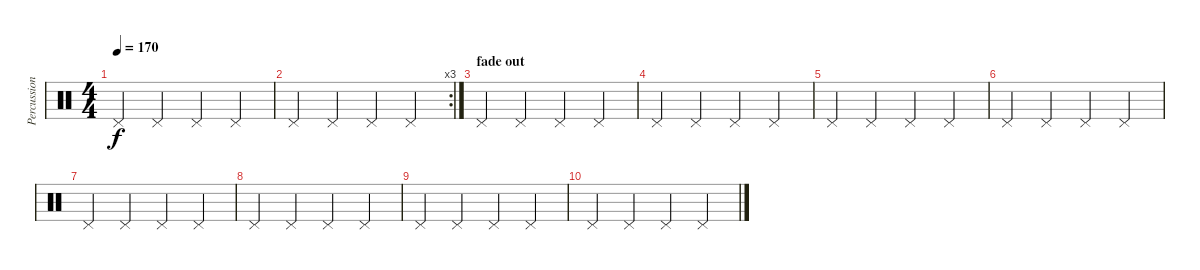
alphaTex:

\track ("Percussion" "Percussion") {instrument percussion}
\staff {score}
\articulation defaults
\ts (4 4)
\tempo 170
\clef neutral
\ks c "Pedal Hi-Hat (hit)".4{dy f} "Pedal Hi-Hat (hit)".4 "Pedal Hi-Hat (hit)".4 "Pedal Hi-Hat (hit)".4
|
\rc 3 "Pedal Hi-Hat (hit)".4 "Pedal Hi-Hat (hit)".4 "Pedal Hi-Hat (hit)".4 "Pedal Hi-Hat (hit)".4
|
\section ("" "fade out")
"Pedal Hi-Hat (hit)".4 "Pedal Hi-Hat (hit)".4 "Pedal Hi-Hat (hit)".4 "Pedal Hi-Hat (hit)".4 |
"Pedal Hi-Hat (hit)".4 "Pedal Hi-Hat (hit)".4 "Pedal Hi-Hat (hit)".4 "Pedal Hi-Hat (hit)".4 |
"Pedal Hi-Hat (hit)".4 "Pedal Hi-Hat (hit)".4 "Pedal Hi-Hat (hit)".4 "Pedal Hi-Hat (hit)".4 |
"Pedal Hi-Hat (hit)".4 "Pedal Hi-Hat (hit)".4 "Pedal Hi-Hat (hit)".4 "Pedal Hi-Hat (hit)".4 |
"Pedal Hi-Hat (hit)".4 "Pedal Hi-Hat (hit)".4 "Pedal Hi-Hat (hit)".4 "Pedal Hi-Hat (hit)".4 |
"Pedal Hi-Hat (hit)".4 "Pedal Hi-Hat (hit)".4 "Pedal Hi-Hat (hit)".4 "Pedal Hi-Hat (hit)".4 |
"Pedal Hi-Hat (hit)".4 "Pedal Hi-Hat (hit)".4 "Pedal Hi-Hat (hit)".4 "Pedal Hi-Hat (hit)".4 |
"Pedal Hi-Hat (hit)".4 "Pedal Hi-Hat (hit)".4 "Pedal Hi-Hat (hit)".4 "Pedal Hi-Hat (hit)".4
